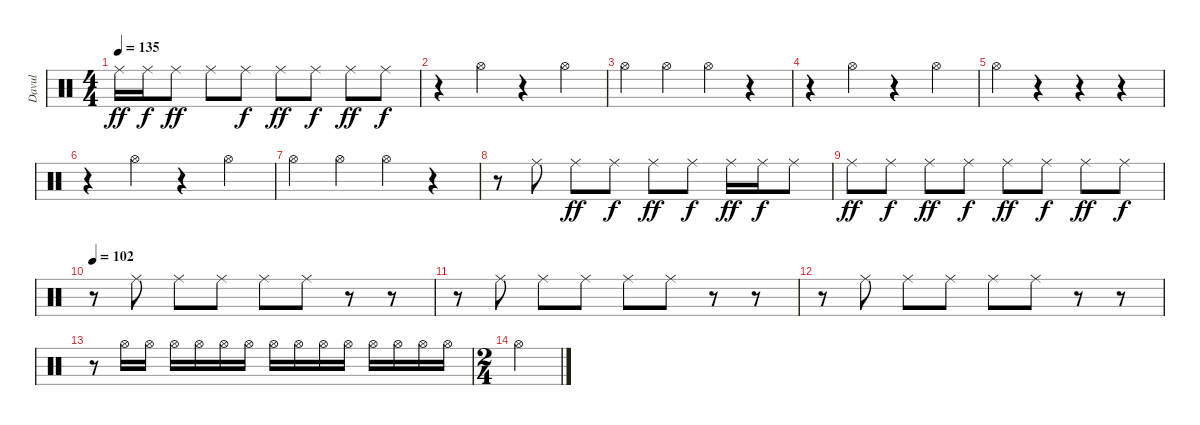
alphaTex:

\track ("Davul" "Davul") {instrument percussion}
\staff {score}
\articulation defaults
\ts (4 4)
\tempo 135
\clef neutral
\ks c "Ride (middle)".16{dy ff} "Ride (middle)".16{dy f} "Ride (middle)".8{dy ff} "Ride (middle)".8 "Ride (middle)".8{dy f} "Ride (middle)".8{dy ff} "Ride (middle)".8{dy f} "Ride (middle)".8{dy ff} "Ride (middle)".8{dy f}
|
r.4 "Hi-Hat (open)".4 r.4 "Hi-Hat (open)".4 |
"Hi-Hat (open)".4 "Hi-Hat (open)".4 "Hi-Hat (open)".4 r.4 |
r.4 "Hi-Hat (open)".4 r.4 "Hi-Hat (open)".4 |
"Hi-Hat (open)".4 r.4 r.4 r.4 |
r.4 "Hi-Hat (open)".4 r.4 "Hi-Hat (open)".4 |
"Hi-Hat (open)".4 "Hi-Hat (open)".4 "Hi-Hat (open)".4 r.4 |
r.8 "Ride (middle)".8 "Ride (middle)".8{dy ff} "Ride (middle)".8{dy f} "Ride (middle)".8{dy ff} "Ride (middle)".8{dy f} "Ride (middle)".16{dy ff} "Ride (middle)".16{dy f} "Ride (middle)".8 |
"Ride (middle)".8{dy ff} "Ride (middle)".8{dy f} "Ride (middle)".8{dy ff} "Ride (middle)".8{dy f} "Ride (middle)".8{dy ff} "Ride (middle)".8{dy f} "Ride (middle)".8{dy ff} "Ride (middle)".8{dy f} |
\tempo 102
r.8 "Ride (middle)".8 "Ride (middle)".8 "Ride (middle)".8 "Ride (middle)".8 "Ride (middle)".8 r.8 r.8 |
r.8 "Ride (middle)".8 "Ride (middle)".8 "Ride (middle)".8 "Ride (middle)".8 "Ride (middle)".8 r.8 r.8 |
r.8 "Ride (middle)".8 "Ride (middle)".8 "Ride (middle)".8 "Ride (middle)".8 "Ride (middle)".8 r.8 r.8 |
r.8 "Hi-Hat (open)".16 "Hi-Hat (open)".16 "Hi-Hat (open)".16 "Hi-Hat (open)".16 "Hi-Hat (open)".16 "Hi-Hat (open)".16 "Hi-Hat (open)".16 "Hi-Hat (open)".16 "Hi-Hat (open)".16 "Hi-Hat (open)".16 "Hi-Hat (open)".16 "Hi-Hat (open)".16 "Hi-Hat (open)".16 "Hi-Hat (open)".16 |
\ts (2 4)
"Hi-Hat (open)".2
